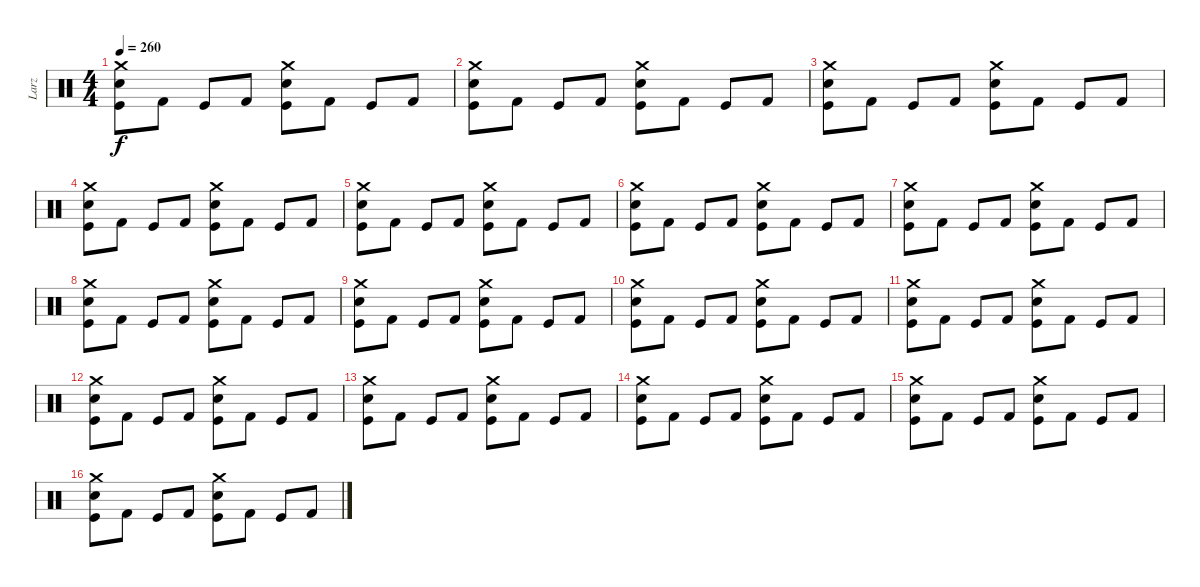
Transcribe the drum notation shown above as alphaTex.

\track ("Larz" "Larz") {instrument percussion}
\staff {score}
\articulation defaults
\ts (4 4)
\tempo 260
\clef neutral
\ks c
("Crash medium (hit)" "Kick (hit)" "Electric Snare (hit)").8{dy f} "Kick (hit) 2".8 "Kick (hit)".8 "Kick (hit) 2".8 ("Crash medium (hit)" "Kick (hit)" "Electric Snare (hit)").8 "Kick (hit) 2".8 "Kick (hit)".8 "Kick (hit) 2".8 |
("Crash medium (hit)" "Kick (hit)" "Electric Snare (hit)").8 "Kick (hit) 2".8 "Kick (hit)".8 "Kick (hit) 2".8 ("Crash medium (hit)" "Kick (hit)" "Electric Snare (hit)").8 "Kick (hit) 2".8 "Kick (hit)".8 "Kick (hit) 2".8 |
("Crash medium (hit)" "Kick (hit)" "Electric Snare (hit)").8 "Kick (hit) 2".8 "Kick (hit)".8 "Kick (hit) 2".8 ("Crash medium (hit)" "Kick (hit)" "Electric Snare (hit)").8 "Kick (hit) 2".8 "Kick (hit)".8 "Kick (hit) 2".8 |
("Crash medium (hit)" "Kick (hit)" "Electric Snare (hit)").8 "Kick (hit) 2".8 "Kick (hit)".8 "Kick (hit) 2".8 ("Crash medium (hit)" "Kick (hit)" "Electric Snare (hit)").8 "Kick (hit) 2".8 "Kick (hit)".8 "Kick (hit) 2".8 |
("Crash medium (hit)" "Kick (hit)" "Electric Snare (hit)").8 "Kick (hit) 2".8 "Kick (hit)".8 "Kick (hit) 2".8 ("Crash medium (hit)" "Kick (hit)" "Electric Snare (hit)").8 "Kick (hit) 2".8 "Kick (hit)".8 "Kick (hit) 2".8 |
("Crash medium (hit)" "Kick (hit)" "Electric Snare (hit)").8 "Kick (hit) 2".8 "Kick (hit)".8 "Kick (hit) 2".8 ("Crash medium (hit)" "Kick (hit)" "Electric Snare (hit)").8 "Kick (hit) 2".8 "Kick (hit)".8 "Kick (hit) 2".8 |
("Crash medium (hit)" "Kick (hit)" "Electric Snare (hit)").8 "Kick (hit) 2".8 "Kick (hit)".8 "Kick (hit) 2".8 ("Crash medium (hit)" "Kick (hit)" "Electric Snare (hit)").8 "Kick (hit) 2".8 "Kick (hit)".8 "Kick (hit) 2".8 |
("Crash medium (hit)" "Kick (hit)" "Electric Snare (hit)").8 "Kick (hit) 2".8 "Kick (hit)".8 "Kick (hit) 2".8 ("Crash medium (hit)" "Kick (hit)" "Electric Snare (hit)").8 "Kick (hit) 2".8 "Kick (hit)".8 "Kick (hit) 2".8 |
("Crash medium (hit)" "Kick (hit)" "Electric Snare (hit)").8 "Kick (hit) 2".8 "Kick (hit)".8 "Kick (hit) 2".8 ("Crash medium (hit)" "Kick (hit)" "Electric Snare (hit)").8 "Kick (hit) 2".8 "Kick (hit)".8 "Kick (hit) 2".8 |
("Crash medium (hit)" "Kick (hit)" "Electric Snare (hit)").8 "Kick (hit) 2".8 "Kick (hit)".8 "Kick (hit) 2".8 ("Crash medium (hit)" "Kick (hit)" "Electric Snare (hit)").8 "Kick (hit) 2".8 "Kick (hit)".8 "Kick (hit) 2".8 |
("Crash medium (hit)" "Kick (hit)" "Electric Snare (hit)").8 "Kick (hit) 2".8 "Kick (hit)".8 "Kick (hit) 2".8 ("Crash medium (hit)" "Kick (hit)" "Electric Snare (hit)").8 "Kick (hit) 2".8 "Kick (hit)".8 "Kick (hit) 2".8 |
("Crash medium (hit)" "Kick (hit)" "Electric Snare (hit)").8 "Kick (hit) 2".8 "Kick (hit)".8 "Kick (hit) 2".8 ("Crash medium (hit)" "Kick (hit)" "Electric Snare (hit)").8 "Kick (hit) 2".8 "Kick (hit)".8 "Kick (hit) 2".8 |
("Crash medium (hit)" "Kick (hit)" "Electric Snare (hit)").8 "Kick (hit) 2".8 "Kick (hit)".8 "Kick (hit) 2".8 ("Crash medium (hit)" "Kick (hit)" "Electric Snare (hit)").8 "Kick (hit) 2".8 "Kick (hit)".8 "Kick (hit) 2".8 |
("Crash medium (hit)" "Kick (hit)" "Electric Snare (hit)").8 "Kick (hit) 2".8 "Kick (hit)".8 "Kick (hit) 2".8 ("Crash medium (hit)" "Kick (hit)" "Electric Snare (hit)").8 "Kick (hit) 2".8 "Kick (hit)".8 "Kick (hit) 2".8 |
("Crash medium (hit)" "Kick (hit)" "Electric Snare (hit)").8 "Kick (hit) 2".8 "Kick (hit)".8 "Kick (hit) 2".8 ("Crash medium (hit)" "Kick (hit)" "Electric Snare (hit)").8 "Kick (hit) 2".8 "Kick (hit)".8 "Kick (hit) 2".8 |
("Crash medium (hit)" "Kick (hit)" "Electric Snare (hit)").8 "Kick (hit) 2".8 "Kick (hit)".8 "Kick (hit) 2".8 ("Crash medium (hit)" "Kick (hit)" "Electric Snare (hit)").8 "Kick (hit) 2".8 "Kick (hit)".8 "Kick (hit) 2".8
